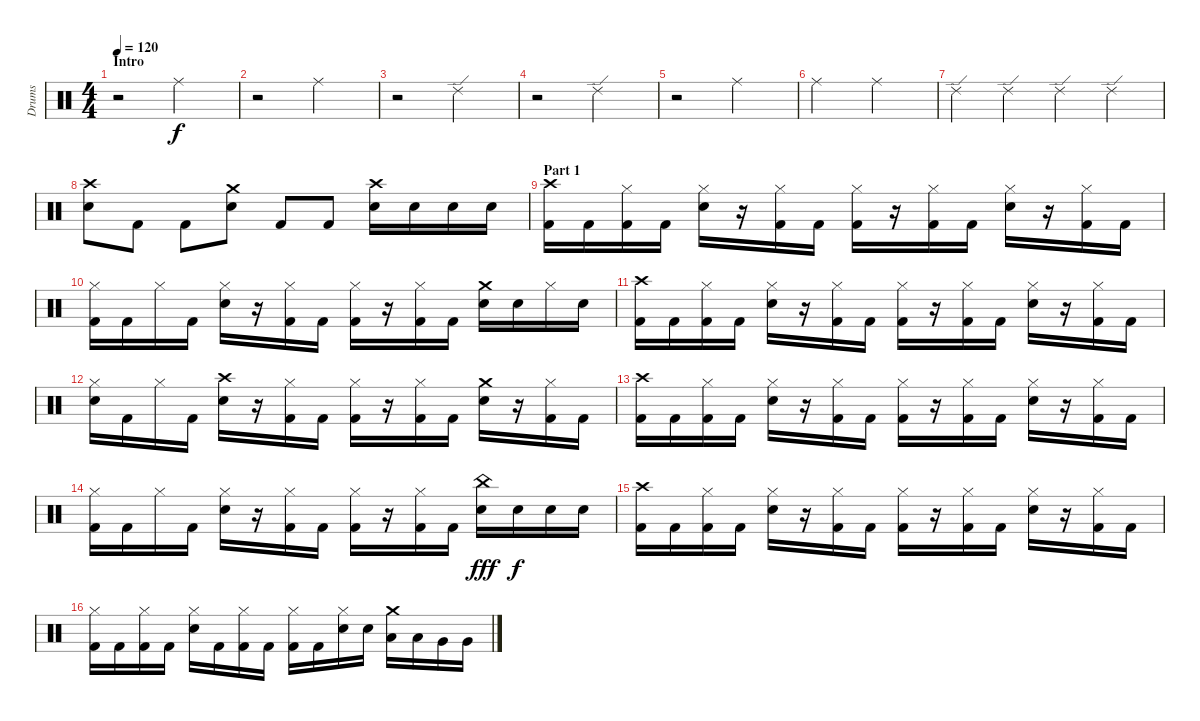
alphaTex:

\track ("Drums" "Drums") {instrument percussion}
\staff {score}
\articulation defaults
\ts (4 4)
\section ("" "Intro")
\tempo 120
\clef neutral
\ks c
r.2{dy f} "Ride (middle)".2 |
r.2 "Ride (middle)".2 |
r.2 "Ride (edge) 2".2 |
r.2 "Ride (edge) 2".2 |
r.2 "Ride (middle)".2 |
"Ride (middle)".2 "Ride (middle)".2 |
"Ride (edge) 2".4 "Ride (edge) 2".4 "Ride (edge) 2".4 "Ride (edge) 2".4 |
("Crash high (hit)" "Snare (hit) 2").8 "Kick (hit) 2".8 "Kick (hit) 2".8 ("Crash medium (hit)" "Snare (hit) 2").8 "Kick (hit) 2".8 "Kick (hit) 2".8 ("Crash high (hit)" "Snare (hit) 2").16 "Snare (hit) 2".16 "Snare (hit) 2".16 "Snare (hit) 2".16 |
\section ("" "Part 1")
("Crash high (hit)" "Kick (hit) 2").16 "Kick (hit) 2".16 ("Hi-Hat (closed)" "Kick (hit) 2").16 "Kick (hit) 2".16 ("Hi-Hat (closed)" "Snare (hit) 2").16 r.16 ("Hi-Hat (closed)" "Kick (hit) 2").16 "Kick (hit) 2".16 ("Hi-Hat (closed)" "Kick (hit) 2").16 r.16 ("Hi-Hat (closed)" "Kick (hit) 2").16 "Kick (hit) 2".16 ("Hi-Hat (closed)" "Snare (hit) 2").16 r.16 ("Hi-Hat (closed)" "Kick (hit) 2").16 "Kick (hit) 2".16 |
("Hi-Hat (closed)" "Kick (hit) 2").16 "Kick (hit) 2".16 "Hi-Hat (closed)".16 "Kick (hit) 2".16 ("Hi-Hat (closed)" "Snare (hit) 2").16 r.16 ("Hi-Hat (closed)" "Kick (hit) 2").16 "Kick (hit) 2".16 ("Hi-Hat (closed)" "Kick (hit) 2").16 r.16 ("Hi-Hat (closed)" "Kick (hit) 2").16 "Kick (hit) 2".16 ("Crash medium (hit)" "Snare (hit) 2").16 "Snare (hit) 2".16 "Hi-Hat (closed)".16 "Snare (hit) 2".16 |
("Crash high (hit)" "Kick (hit) 2").16 "Kick (hit) 2".16 ("Hi-Hat (closed)" "Kick (hit) 2").16 "Kick (hit) 2".16 ("Hi-Hat (closed)" "Snare (hit) 2").16 r.16 ("Hi-Hat (closed)" "Kick (hit) 2").16 "Kick (hit) 2".16 ("Hi-Hat (closed)" "Kick (hit) 2").16 r.16 ("Hi-Hat (closed)" "Kick (hit) 2").16 "Kick (hit) 2".16 ("Hi-Hat (closed)" "Snare (hit) 2").16 r.16 ("Hi-Hat (closed)" "Kick (hit) 2").16 "Kick (hit) 2".16 |
("Hi-Hat (closed)" "Snare (hit) 2").16 "Kick (hit) 2".16 "Hi-Hat (closed)".16 "Kick (hit) 2".16 ("Crash high (hit)" "Snare (hit) 2").16 r.16 ("Hi-Hat (closed)" "Kick (hit) 2").16 "Kick (hit) 2".16 ("Hi-Hat (closed)" "Kick (hit) 2").16 r.16 ("Hi-Hat (closed)" "Kick (hit) 2").16 "Kick (hit) 2".16 ("Crash medium (hit)" "Snare (hit) 2").16 r.16 ("Hi-Hat (closed)" "Kick (hit) 2").16 "Kick (hit) 2".16 |
("Crash high (hit)" "Kick (hit) 2").16 "Kick (hit) 2".16 ("Hi-Hat (closed)" "Kick (hit) 2").16 "Kick (hit) 2".16 ("Hi-Hat (closed)" "Snare (hit) 2").16 r.16 ("Hi-Hat (closed)" "Kick (hit) 2").16 "Kick (hit) 2".16 ("Hi-Hat (closed)" "Kick (hit) 2").16 r.16 ("Hi-Hat (closed)" "Kick (hit) 2").16 "Kick (hit) 2".16 ("Hi-Hat (closed)" "Snare (hit) 2").16 r.16 ("Hi-Hat (closed)" "Kick (hit) 2").16 "Kick (hit) 2".16 |
("Hi-Hat (closed)" "Kick (hit) 2").16 "Kick (hit) 2".16 "Hi-Hat (closed)".16 "Kick (hit) 2".16 ("Hi-Hat (closed)" "Snare (hit) 2").16 r.16 ("Hi-Hat (closed)" "Kick (hit) 2").16 "Kick (hit) 2".16 ("Hi-Hat (closed)" "Kick (hit) 2").16 r.16 ("Hi-Hat (closed)" "Kick (hit) 2").16 "Kick (hit) 2".16 ("China (hit)" "Snare (hit) 2").16{dy fff} "Snare (hit) 2".16{dy f} "Snare (hit) 2".16 "Snare (hit) 2".16 |
("Crash high (hit)" "Kick (hit) 2").16 "Kick (hit) 2".16 ("Hi-Hat (closed)" "Kick (hit) 2").16 "Kick (hit) 2".16 ("Hi-Hat (closed)" "Snare (hit) 2").16 r.16 ("Hi-Hat (closed)" "Kick (hit) 2").16 "Kick (hit) 2".16 ("Hi-Hat (closed)" "Kick (hit) 2").16 r.16 ("Hi-Hat (closed)" "Kick (hit) 2").16 "Kick (hit) 2".16 ("Hi-Hat (closed)" "Snare (hit) 2").16 r.16 ("Hi-Hat (closed)" "Kick (hit) 2").16 "Kick (hit) 2".16 |
("Hi-Hat (closed)" "Kick (hit) 2").16 "Kick (hit) 2".16 ("Hi-Hat (closed)" "Kick (hit) 2").16 "Kick (hit) 2".16 ("Hi-Hat (closed)" "Snare (hit) 2").16 "Kick (hit) 2".16 ("Hi-Hat (closed)" "Kick (hit) 2").16 "Kick (hit) 2".16 ("Hi-Hat (closed)" "Kick (hit) 2").16 "Kick (hit) 2".16 ("Hi-Hat (closed)" "Snare (hit) 2").16 "Snare (hit) 2".16 ("Crash medium (hit)" "Low Tom (hit)").16 "Low Tom (hit)".16 "Very Low Tom (hit)".16 "Very Low Tom (hit)".16
